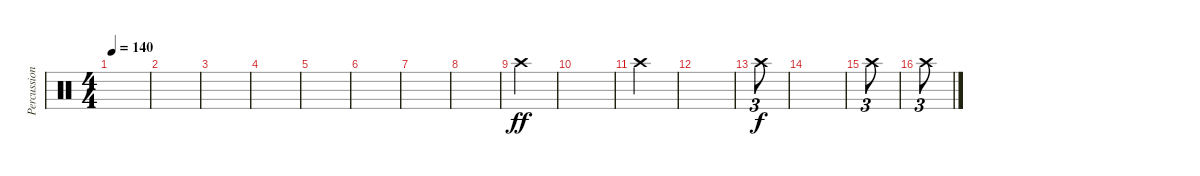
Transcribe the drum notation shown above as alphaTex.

\track ("Percussions" "Percussion") {instrument percussion}
\staff {score}
\articulation defaults
\ts (4 4)
\tempo 140
\clef neutral
\ks c
|
|
|
|
|
|
|
|
"Crash high (hit)".4{dy ff} |
|
"Crash high (hit)".4 |
|
"Crash high (hit)".8{tu (3 2) dy f} |
|
"Crash high (hit)".8{tu (3 2)} |
"Crash high (hit)".8{tu (3 2)}
